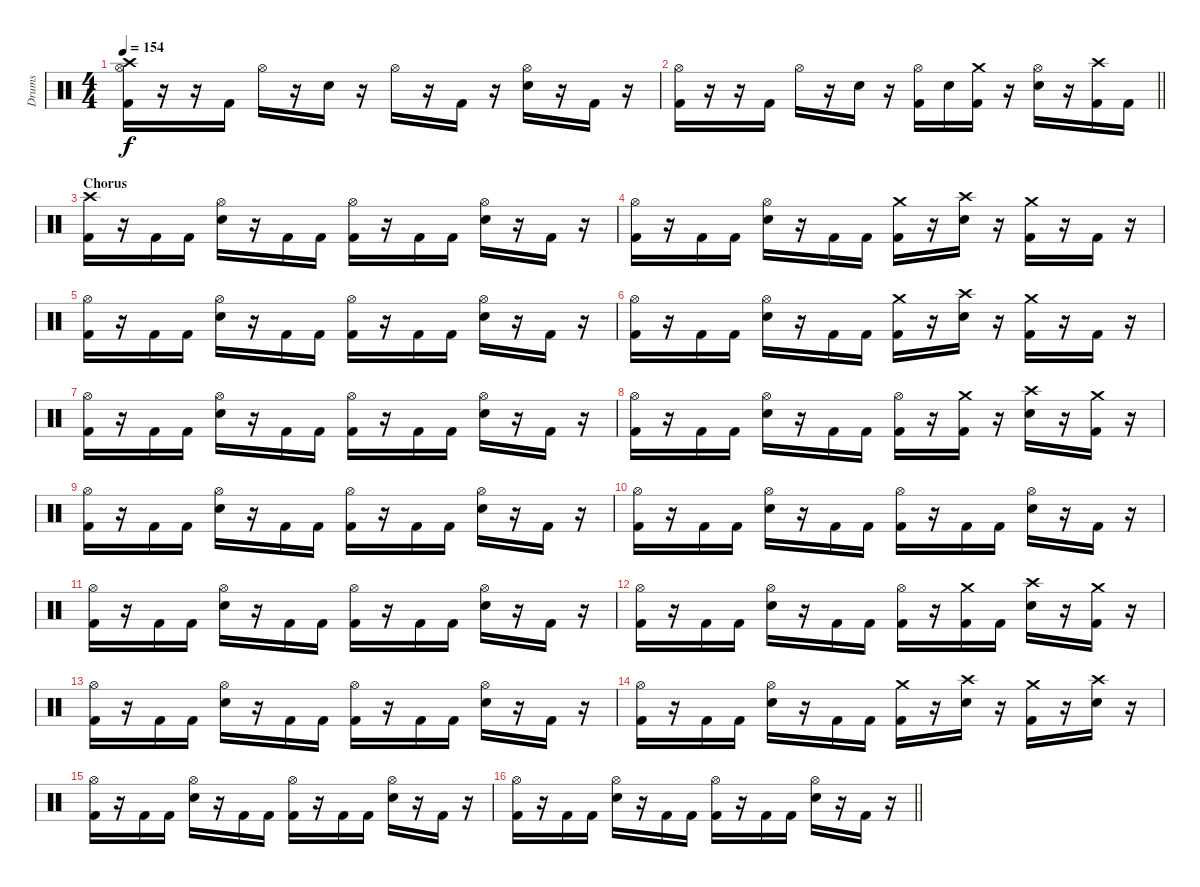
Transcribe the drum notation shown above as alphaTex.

\track ("Drums" "Drums") {instrument percussion}
\staff {score}
\articulation defaults
\ts (4 4)
\tempo 154
\clef neutral
\ks c
("Hi-Hat (open)" "Crash high (hit)" "Kick (hit) 2").16{dy f} r.16 r.16 "Kick (hit) 2".16 "Hi-Hat (open)".16 r.16 "Snare (hit) 2".16 r.16 "Hi-Hat (open)".16 r.16 "Kick (hit) 2".16 r.16 ("Hi-Hat (open)" "Snare (hit) 2").16 r.16 "Kick (hit) 2".16 r.16 |
\barLineRight lightlight
("Hi-Hat (open)" "Kick (hit) 2").16 r.16 r.16 "Kick (hit) 2".16 "Hi-Hat (open)".16 r.16 "Snare (hit) 2".16 r.16 ("Hi-Hat (open)" "Kick (hit) 2").16 "Snare (hit) 2".16 ("Crash medium (hit)" "Kick (hit) 2").16 r.16 ("Hi-Hat (open)" "Snare (hit) 2").16 r.16 ("Crash high (hit)" "Kick (hit) 2").16 "Kick (hit) 2".16 |
\section ("" "Chorus")
("Crash high (hit)" "Kick (hit) 2").16 r.16 "Kick (hit) 2".16 "Kick (hit) 2".16 ("Hi-Hat (open)" "Snare (hit) 2").16 r.16 "Kick (hit) 2".16 "Kick (hit) 2".16 ("Hi-Hat (open)" "Kick (hit) 2").16 r.16 "Kick (hit) 2".16 "Kick (hit) 2".16 ("Hi-Hat (open)" "Snare (hit) 2").16 r.16 "Kick (hit) 2".16 r.16 |
("Hi-Hat (open)" "Kick (hit) 2").16 r.16 "Kick (hit) 2".16 "Kick (hit) 2".16 ("Hi-Hat (open)" "Snare (hit) 2").16 r.16 "Kick (hit) 2".16 "Kick (hit) 2".16 ("Crash medium (hit)" "Kick (hit) 2").16 r.16 ("Crash high (hit)" "Snare (hit) 2").16 r.16 ("Crash medium (hit)" "Kick (hit) 2").16 r.16 "Kick (hit) 2".16 r.16 |
("Hi-Hat (open)" "Kick (hit) 2").16 r.16 "Kick (hit) 2".16 "Kick (hit) 2".16 ("Hi-Hat (open)" "Snare (hit) 2").16 r.16 "Kick (hit) 2".16 "Kick (hit) 2".16 ("Hi-Hat (open)" "Kick (hit) 2").16 r.16 "Kick (hit) 2".16 "Kick (hit) 2".16 ("Hi-Hat (open)" "Snare (hit) 2").16 r.16 "Kick (hit) 2".16 r.16 |
("Hi-Hat (open)" "Kick (hit) 2").16 r.16 "Kick (hit) 2".16 "Kick (hit) 2".16 ("Hi-Hat (open)" "Snare (hit) 2").16 r.16 "Kick (hit) 2".16 "Kick (hit) 2".16 ("Crash medium (hit)" "Kick (hit) 2").16 r.16 ("Crash high (hit)" "Snare (hit) 2").16 r.16 ("Crash medium (hit)" "Kick (hit) 2").16 r.16 "Kick (hit) 2".16 r.16 |
("Hi-Hat (open)" "Kick (hit) 2").16 r.16 "Kick (hit) 2".16 "Kick (hit) 2".16 ("Hi-Hat (open)" "Snare (hit) 2").16 r.16 "Kick (hit) 2".16 "Kick (hit) 2".16 ("Hi-Hat (open)" "Kick (hit) 2").16 r.16 "Kick (hit) 2".16 "Kick (hit) 2".16 ("Hi-Hat (open)" "Snare (hit) 2").16 r.16 "Kick (hit) 2".16 r.16 |
("Hi-Hat (open)" "Kick (hit) 2").16 r.16 "Kick (hit) 2".16 "Kick (hit) 2".16 ("Hi-Hat (open)" "Snare (hit) 2").16 r.16 "Kick (hit) 2".16 "Kick (hit) 2".16 ("Hi-Hat (open)" "Kick (hit) 2").16 r.16 ("Crash medium (hit)" "Kick (hit) 2").16 r.16 ("Crash high (hit)" "Snare (hit) 2").16 r.16 ("Crash medium (hit)" "Kick (hit) 2").16 r.16 |
("Hi-Hat (open)" "Kick (hit) 2").16 r.16 "Kick (hit) 2".16 "Kick (hit) 2".16 ("Hi-Hat (open)" "Snare (hit) 2").16 r.16 "Kick (hit) 2".16 "Kick (hit) 2".16 ("Hi-Hat (open)" "Kick (hit) 2").16 r.16 "Kick (hit) 2".16 "Kick (hit) 2".16 ("Hi-Hat (open)" "Snare (hit) 2").16 r.16 "Kick (hit) 2".16 r.16 |
("Hi-Hat (open)" "Kick (hit) 2").16 r.16 "Kick (hit) 2".16 "Kick (hit) 2".16 ("Hi-Hat (open)" "Snare (hit) 2").16 r.16 "Kick (hit) 2".16 "Kick (hit) 2".16 ("Hi-Hat (open)" "Kick (hit) 2").16 r.16 "Kick (hit) 2".16 "Kick (hit) 2".16 ("Hi-Hat (open)" "Snare (hit) 2").16 r.16 "Kick (hit) 2".16 r.16 |
("Hi-Hat (open)" "Kick (hit) 2").16 r.16 "Kick (hit) 2".16 "Kick (hit) 2".16 ("Hi-Hat (open)" "Snare (hit) 2").16 r.16 "Kick (hit) 2".16 "Kick (hit) 2".16 ("Hi-Hat (open)" "Kick (hit) 2").16 r.16 "Kick (hit) 2".16 "Kick (hit) 2".16 ("Hi-Hat (open)" "Snare (hit) 2").16 r.16 "Kick (hit) 2".16 r.16 |
("Hi-Hat (open)" "Kick (hit) 2").16 r.16 "Kick (hit) 2".16 "Kick (hit) 2".16 ("Hi-Hat (open)" "Snare (hit) 2").16 r.16 "Kick (hit) 2".16 "Kick (hit) 2".16 ("Hi-Hat (open)" "Kick (hit) 2").16 r.16 ("Crash medium (hit)" "Kick (hit) 2").16 "Kick (hit) 2".16 ("Crash high (hit)" "Snare (hit) 2").16 r.16 ("Crash medium (hit)" "Kick (hit) 2").16 r.16 |
("Hi-Hat (open)" "Kick (hit) 2").16 r.16 "Kick (hit) 2".16 "Kick (hit) 2".16 ("Hi-Hat (open)" "Snare (hit) 2").16 r.16 "Kick (hit) 2".16 "Kick (hit) 2".16 ("Hi-Hat (open)" "Kick (hit) 2").16 r.16 "Kick (hit) 2".16 "Kick (hit) 2".16 ("Hi-Hat (open)" "Snare (hit) 2").16 r.16 "Kick (hit) 2".16 r.16 |
("Hi-Hat (open)" "Kick (hit) 2").16 r.16 "Kick (hit) 2".16 "Kick (hit) 2".16 ("Hi-Hat (open)" "Snare (hit) 2").16 r.16 "Kick (hit) 2".16 "Kick (hit) 2".16 ("Crash medium (hit)" "Kick (hit) 2").16 r.16 ("Crash high (hit)" "Snare (hit) 2").16 r.16 ("Crash medium (hit)" "Kick (hit) 2").16 r.16 ("Crash high (hit)" "Snare (hit) 2").16 r.16 |
("Hi-Hat (open)" "Kick (hit) 2").16 r.16 "Kick (hit) 2".16 "Kick (hit) 2".16 ("Hi-Hat (open)" "Snare (hit) 2").16 r.16 "Kick (hit) 2".16 "Kick (hit) 2".16 ("Hi-Hat (open)" "Kick (hit) 2").16 r.16 "Kick (hit) 2".16 "Kick (hit) 2".16 ("Hi-Hat (open)" "Snare (hit) 2").16 r.16 "Kick (hit) 2".16 r.16 |
\barLineRight lightlight
("Hi-Hat (open)" "Kick (hit) 2").16 r.16 "Kick (hit) 2".16 "Kick (hit) 2".16 ("Hi-Hat (open)" "Snare (hit) 2").16 r.16 "Kick (hit) 2".16 "Kick (hit) 2".16 ("Hi-Hat (open)" "Kick (hit) 2").16 r.16 "Kick (hit) 2".16 "Kick (hit) 2".16 ("Hi-Hat (open)" "Snare (hit) 2").16 r.16 "Kick (hit) 2".16 r.16
